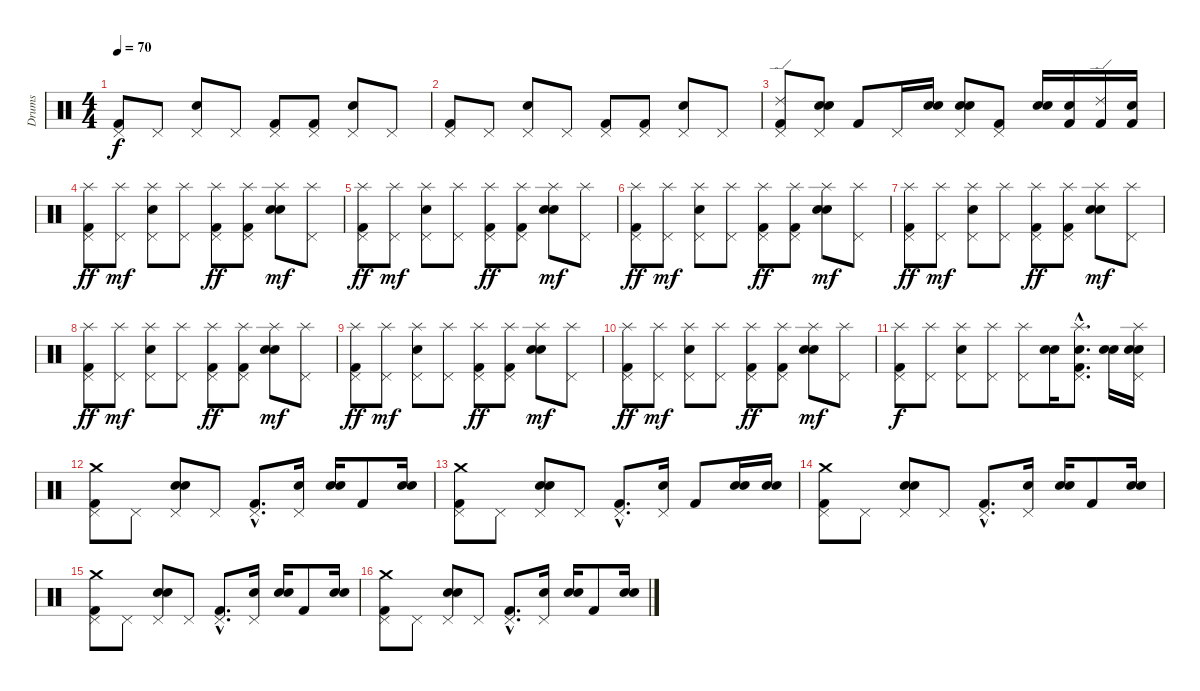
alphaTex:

\track ("Drums" "Drums") {instrument percussion}
\staff {score}
\articulation defaults
\ts (4 4)
\tempo 70
\clef neutral
\ks c
("Pedal Hi-Hat (hit)" "Kick (hit) 2").8{dy f} "Pedal Hi-Hat (hit)".8 ("Pedal Hi-Hat (hit)" "Snare (hit) 2").8 "Pedal Hi-Hat (hit)".8 ("Pedal Hi-Hat (hit)" "Kick (hit) 2").8 ("Pedal Hi-Hat (hit)" "Kick (hit) 2").8 ("Pedal Hi-Hat (hit)" "Snare (hit) 2").8 "Pedal Hi-Hat (hit)".8 |
("Pedal Hi-Hat (hit)" "Kick (hit) 2").8 "Pedal Hi-Hat (hit)".8 ("Pedal Hi-Hat (hit)" "Snare (hit) 2").8 "Pedal Hi-Hat (hit)".8 ("Pedal Hi-Hat (hit)" "Kick (hit) 2").8 ("Pedal Hi-Hat (hit)" "Kick (hit) 2").8 ("Pedal Hi-Hat (hit)" "Snare (hit) 2").8 "Pedal Hi-Hat (hit)".8 |
("Ride (edge) 2" "Pedal Hi-Hat (hit)" "Kick (hit) 2").8 ("Pedal Hi-Hat (hit)" "Electric Snare (hit)" "Snare (hit) 2").8 "Kick (hit) 2".8 "Pedal Hi-Hat (hit)".16 ("Snare (hit) 2" "Electric Snare (hit)").16 ("Pedal Hi-Hat (hit)" "Snare (hit) 2" "Electric Snare (hit)").8 ("Pedal Hi-Hat (hit)" "Kick (hit) 2").8 ("Electric Snare (hit)" "Snare (hit) 2").16 ("Electric Snare (hit)" "Kick (hit) 2").16 ("Ride (edge) 2" "Kick (hit) 2").16 ("Electric Snare (hit)" "Kick (hit) 2").16 |
("Splash (hit)" "Pedal Hi-Hat (hit)" "Kick (hit) 2").8{dy ff} ("Splash (hit)" "Pedal Hi-Hat (hit)").8{dy mf} ("Splash (hit)" "Pedal Hi-Hat (hit)" "Snare (hit) 2").8 ("Splash (hit)" "Pedal Hi-Hat (hit)").8 ("Splash (hit)" "Pedal Hi-Hat (hit)" "Kick (hit) 2").8{dy ff} ("Splash (hit)" "Pedal Hi-Hat (hit)" "Kick (hit) 2").8 ("Splash (hit)" "Electric Snare (hit)" "Snare (hit) 2").8{dy mf} ("Splash (hit)" "Pedal Hi-Hat (hit)").8 |
("Splash (hit)" "Pedal Hi-Hat (hit)" "Kick (hit) 2").8{dy ff} ("Splash (hit)" "Pedal Hi-Hat (hit)").8{dy mf} ("Splash (hit)" "Pedal Hi-Hat (hit)" "Snare (hit) 2").8 ("Splash (hit)" "Pedal Hi-Hat (hit)").8 ("Splash (hit)" "Pedal Hi-Hat (hit)" "Kick (hit) 2").8{dy ff} ("Splash (hit)" "Pedal Hi-Hat (hit)" "Kick (hit) 2").8 ("Splash (hit)" "Electric Snare (hit)" "Snare (hit) 2").8{dy mf} ("Splash (hit)" "Pedal Hi-Hat (hit)").8 |
("Splash (hit)" "Pedal Hi-Hat (hit)" "Kick (hit) 2").8{dy ff} ("Splash (hit)" "Pedal Hi-Hat (hit)").8{dy mf} ("Splash (hit)" "Pedal Hi-Hat (hit)" "Snare (hit) 2").8 ("Splash (hit)" "Pedal Hi-Hat (hit)").8 ("Splash (hit)" "Pedal Hi-Hat (hit)" "Kick (hit) 2").8{dy ff} ("Splash (hit)" "Pedal Hi-Hat (hit)" "Kick (hit) 2").8 ("Splash (hit)" "Electric Snare (hit)" "Snare (hit) 2").8{dy mf} ("Splash (hit)" "Pedal Hi-Hat (hit)").8 |
("Splash (hit)" "Pedal Hi-Hat (hit)" "Kick (hit) 2").8{dy ff} ("Splash (hit)" "Pedal Hi-Hat (hit)").8{dy mf} ("Splash (hit)" "Pedal Hi-Hat (hit)" "Snare (hit) 2").8 ("Splash (hit)" "Pedal Hi-Hat (hit)").8 ("Splash (hit)" "Pedal Hi-Hat (hit)" "Kick (hit) 2").8{dy ff} ("Splash (hit)" "Pedal Hi-Hat (hit)" "Kick (hit) 2").8 ("Splash (hit)" "Electric Snare (hit)" "Snare (hit) 2").8{dy mf} ("Splash (hit)" "Pedal Hi-Hat (hit)").8 |
("Splash (hit)" "Pedal Hi-Hat (hit)" "Kick (hit) 2").8{dy ff} ("Splash (hit)" "Pedal Hi-Hat (hit)").8{dy mf} ("Splash (hit)" "Pedal Hi-Hat (hit)" "Snare (hit) 2").8 ("Splash (hit)" "Pedal Hi-Hat (hit)").8 ("Splash (hit)" "Pedal Hi-Hat (hit)" "Kick (hit) 2").8{dy ff} ("Splash (hit)" "Pedal Hi-Hat (hit)" "Kick (hit) 2").8 ("Splash (hit)" "Electric Snare (hit)" "Snare (hit) 2").8{dy mf} ("Splash (hit)" "Pedal Hi-Hat (hit)").8 |
("Splash (hit)" "Pedal Hi-Hat (hit)" "Kick (hit) 2").8{dy ff} ("Splash (hit)" "Pedal Hi-Hat (hit)").8{dy mf} ("Splash (hit)" "Pedal Hi-Hat (hit)" "Snare (hit) 2").8 ("Splash (hit)" "Pedal Hi-Hat (hit)").8 ("Splash (hit)" "Pedal Hi-Hat (hit)" "Kick (hit) 2").8{dy ff} ("Splash (hit)" "Pedal Hi-Hat (hit)" "Kick (hit) 2").8 ("Splash (hit)" "Electric Snare (hit)" "Snare (hit) 2").8{dy mf} ("Splash (hit)" "Pedal Hi-Hat (hit)").8 |
("Splash (hit)" "Pedal Hi-Hat (hit)" "Kick (hit) 2").8{dy ff} ("Splash (hit)" "Pedal Hi-Hat (hit)").8{dy mf} ("Splash (hit)" "Pedal Hi-Hat (hit)" "Snare (hit) 2").8 ("Splash (hit)" "Pedal Hi-Hat (hit)").8 ("Splash (hit)" "Pedal Hi-Hat (hit)" "Kick (hit) 2").8{dy ff} ("Splash (hit)" "Pedal Hi-Hat (hit)" "Kick (hit) 2").8 ("Splash (hit)" "Electric Snare (hit)" "Snare (hit) 2").8{dy mf} ("Splash (hit)" "Pedal Hi-Hat (hit)").8 |
("Splash (hit)" "Pedal Hi-Hat (hit)" "Kick (hit) 2").8{dy f} ("Splash (hit)" "Pedal Hi-Hat (hit)").8 ("Splash (hit)" "Pedal Hi-Hat (hit)" "Snare (hit) 2").8 ("Splash (hit)" "Pedal Hi-Hat (hit)").8 ("Splash (hit)" "Pedal Hi-Hat (hit)").8 ("Electric Snare (hit)" "Snare (hit) 2").16 ("Splash (hit)"{hac} "Pedal Hi-Hat (hit)"{hac} "Electric Snare (hit)"{hac} "Kick (hit) 2"{hac}).8{d} ("Electric Snare (hit)" "Snare (hit) 2").16 ("Splash (hit)" "Pedal Hi-Hat (hit)" "Electric Snare (hit)" "Snare (hit) 2").16 |
("Crash medium (hit)" "Pedal Hi-Hat (hit)" "Kick (hit) 2").8 "Pedal Hi-Hat (hit)".8 ("Pedal Hi-Hat (hit)" "Electric Snare (hit)" "Snare (hit) 2").8 "Pedal Hi-Hat (hit)".8 ("Pedal Hi-Hat (hit)"{hac} "Kick (hit) 2"{hac}).8{d} ("Pedal Hi-Hat (hit)" "Snare (hit) 2").16 ("Electric Snare (hit)" "Snare (hit) 2").16 "Kick (hit) 2".8 ("Electric Snare (hit)" "Snare (hit) 2").16 |
("Crash medium (hit)" "Pedal Hi-Hat (hit)" "Kick (hit) 2").8 "Pedal Hi-Hat (hit)".8 ("Pedal Hi-Hat (hit)" "Electric Snare (hit)" "Snare (hit) 2").8 "Pedal Hi-Hat (hit)".8 ("Pedal Hi-Hat (hit)"{hac} "Kick (hit) 2"{hac}).8{d} ("Pedal Hi-Hat (hit)" "Snare (hit) 2").16 "Kick (hit) 2".8 ("Electric Snare (hit)" "Snare (hit) 2").16 ("Electric Snare (hit)" "Snare (hit) 2").16 |
("Crash medium (hit)" "Pedal Hi-Hat (hit)" "Kick (hit) 2").8 "Pedal Hi-Hat (hit)".8 ("Pedal Hi-Hat (hit)" "Electric Snare (hit)" "Snare (hit) 2").8 "Pedal Hi-Hat (hit)".8 ("Pedal Hi-Hat (hit)"{hac} "Kick (hit) 2"{hac}).8{d} ("Pedal Hi-Hat (hit)" "Snare (hit) 2").16 ("Electric Snare (hit)" "Snare (hit) 2").16 "Kick (hit) 2".8 ("Electric Snare (hit)" "Snare (hit) 2").16 |
("Crash medium (hit)" "Pedal Hi-Hat (hit)" "Kick (hit) 2").8 "Pedal Hi-Hat (hit)".8 ("Pedal Hi-Hat (hit)" "Electric Snare (hit)" "Snare (hit) 2").8 "Pedal Hi-Hat (hit)".8 ("Pedal Hi-Hat (hit)"{hac} "Kick (hit) 2"{hac}).8{d} ("Pedal Hi-Hat (hit)" "Snare (hit) 2").16 ("Electric Snare (hit)" "Snare (hit) 2").16 "Kick (hit) 2".8 ("Electric Snare (hit)" "Snare (hit) 2").16 |
("Crash medium (hit)" "Pedal Hi-Hat (hit)" "Kick (hit) 2").8 "Pedal Hi-Hat (hit)".8 ("Pedal Hi-Hat (hit)" "Electric Snare (hit)" "Snare (hit) 2").8 "Pedal Hi-Hat (hit)".8 ("Pedal Hi-Hat (hit)"{hac} "Kick (hit) 2"{hac}).8{d} ("Pedal Hi-Hat (hit)" "Snare (hit) 2").16 ("Electric Snare (hit)" "Snare (hit) 2").16 "Kick (hit) 2".8 ("Electric Snare (hit)" "Snare (hit) 2").16
